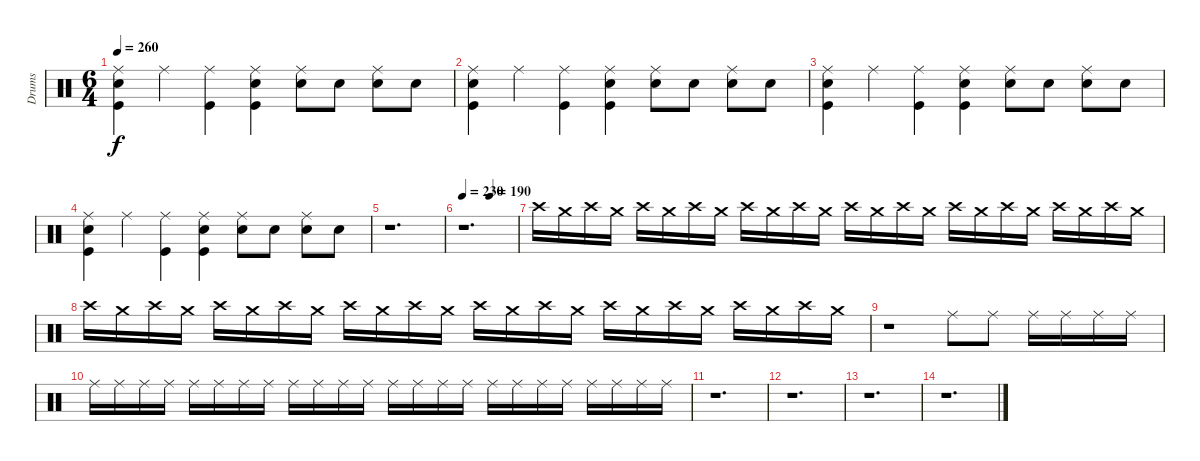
\track ("Drums" "Drums") {instrument percussion}
\staff {score}
\articulation defaults
\ts (6 4)
\tempo 260
\clef neutral
\ks c
("Ride (middle)" "Snare (hit) 2" "Kick (hit)").4{dy f} "Ride (middle)".4 ("Ride (middle)" "Kick (hit)").4 ("Ride (middle)" "Snare (hit) 2" "Kick (hit)").4 ("Ride (middle)" "Snare (hit) 2").8 "Snare (hit) 2".8 ("Ride (middle)" "Snare (hit) 2").8 "Snare (hit) 2".8 |
("Ride (middle)" "Snare (hit) 2" "Kick (hit)").4 "Ride (middle)".4 ("Ride (middle)" "Kick (hit)").4 ("Ride (middle)" "Snare (hit) 2" "Kick (hit)").4 ("Ride (middle)" "Snare (hit) 2").8 "Snare (hit) 2".8 ("Ride (middle)" "Snare (hit) 2").8 "Snare (hit) 2".8 |
("Ride (middle)" "Snare (hit) 2" "Kick (hit)").4 "Ride (middle)".4 ("Ride (middle)" "Kick (hit)").4 ("Ride (middle)" "Snare (hit) 2" "Kick (hit)").4 ("Ride (middle)" "Snare (hit) 2").8 "Snare (hit) 2".8 ("Ride (middle)" "Snare (hit) 2").8 "Snare (hit) 2".8 |
("Ride (middle)" "Snare (hit) 2" "Kick (hit)").4 "Ride (middle)".4 ("Ride (middle)" "Kick (hit)").4 ("Ride (middle)" "Snare (hit) 2" "Kick (hit)").4 ("Ride (middle)" "Snare (hit) 2").8 "Snare (hit) 2".8 ("Ride (middle)" "Snare (hit) 2").8 "Snare (hit) 2".8 |
r.1{d} |
\tempo 230
\tempo (190 0.5)
r.1{d volume 5} |
"Crash high (hit)".16{volume 13} "Crash medium (hit)".16 "Crash high (hit)".16 "Crash medium (hit)".16 "Crash high (hit)".16 "Crash medium (hit)".16 "Crash high (hit)".16 "Crash medium (hit)".16 "Crash high (hit)".16 "Crash medium (hit)".16 "Crash high (hit)".16 "Crash medium (hit)".16 "Crash high (hit)".16 "Crash medium (hit)".16 "Crash high (hit)".16 "Crash medium (hit)".16 "Crash high (hit)".16 "Crash medium (hit)".16 "Crash high (hit)".16 "Crash medium (hit)".16 "Crash high (hit)".16 "Crash medium (hit)".16 "Crash high (hit)".16 "Crash medium (hit)".16 |
"Crash high (hit)".16 "Crash medium (hit)".16 "Crash high (hit)".16 "Crash medium (hit)".16 "Crash high (hit)".16 "Crash medium (hit)".16 "Crash high (hit)".16 "Crash medium (hit)".16 "Crash high (hit)".16 "Crash medium (hit)".16 "Crash high (hit)".16 "Crash medium (hit)".16 "Crash high (hit)".16 "Crash medium (hit)".16 "Crash high (hit)".16 "Crash medium (hit)".16 "Crash high (hit)".16 "Crash medium (hit)".16 "Crash high (hit)".16 "Crash medium (hit)".16 "Crash high (hit)".16 "Crash medium (hit)".16 "Crash high (hit)".16 "Crash medium (hit)".16 |
r.1 "Ride (middle)".8 "Ride (middle)".8 "Ride (middle)".16 "Ride (middle)".16 "Ride (middle)".16 "Ride (middle)".16 |
"Ride (middle)".16 "Ride (middle)".16 "Ride (middle)".16 "Ride (middle)".16 "Ride (middle)".16 "Ride (middle)".16 "Ride (middle)".16 "Ride (middle)".16 "Ride (middle)".16 "Ride (middle)".16 "Ride (middle)".16 "Ride (middle)".16 "Ride (middle)".16 "Ride (middle)".16 "Ride (middle)".16 "Ride (middle)".16 "Ride (middle)".16 "Ride (middle)".16 "Ride (middle)".16 "Ride (middle)".16 "Ride (middle)".16 "Ride (middle)".16 "Ride (middle)".16 "Ride (middle)".16 |
r.1{d} |
r.1{d} |
r.1{d} |
r.1{d}
